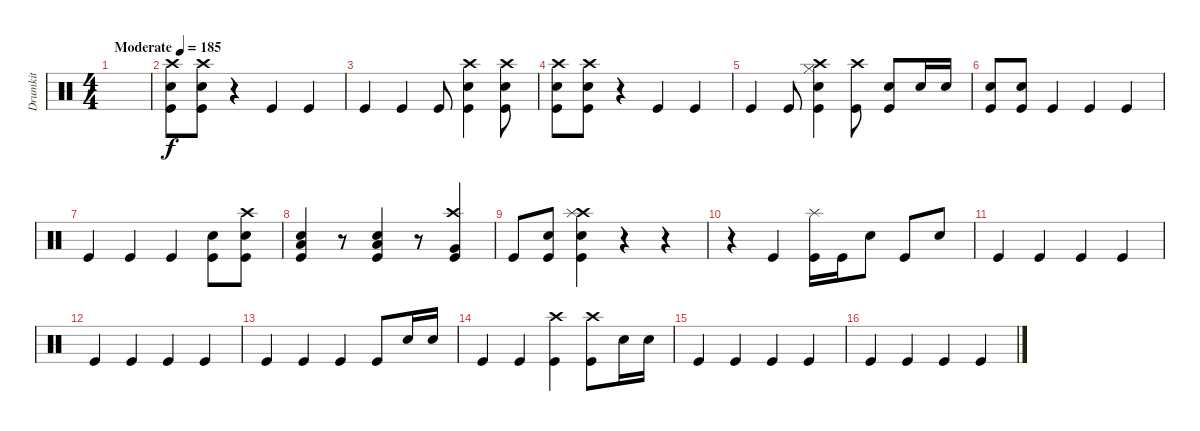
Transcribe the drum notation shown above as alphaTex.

\track ("Drumkit" "Drumkit") {instrument percussion}
\staff {score}
\articulation defaults
\ts (4 4)
\tempo (185 "Moderate")
\clef neutral
\ks c
|
("Kick (hit)" "Snare (hit) 2" "Crash high (hit)").8 ("Kick (hit)" "Snare (hit) 2" "Crash high (hit)").8 r.4 "Kick (hit)".4 "Kick (hit)".4 |
"Kick (hit)".4 "Kick (hit)".4 "Kick (hit)".8 ("Kick (hit)" "Snare (hit) 2" "Crash high (hit)").4 ("Kick (hit)" "Snare (hit) 2" "Crash high (hit)").8 |
("Kick (hit)" "Snare (hit) 2" "Crash high (hit)").8 ("Kick (hit)" "Snare (hit) 2" "Crash high (hit)").8 r.4 "Kick (hit)".4 "Kick (hit)".4 |
"Kick (hit)".4 "Kick (hit)".8 ("Kick (hit)" "Snare (hit) 2" "Hi-Hat (closed)" "Crash high (hit)").4 ("Kick (hit)" "Crash high (hit)").8 ("Kick (hit)" "Snare (hit) 2").8 "Snare (hit) 2".16 "Snare (hit) 2".16 |
("Kick (hit)" "Snare (hit) 2").8 ("Kick (hit)" "Snare (hit) 2").8 "Kick (hit)".4 "Kick (hit)".4 "Kick (hit)".4 |
"Kick (hit)".4 "Kick (hit)".4 "Kick (hit)".4 ("Kick (hit)" "Snare (hit) 2").8 ("Kick (hit)" "Snare (hit) 2" "Crash high (hit)").8 |
("Kick (hit)" "Low Floor Tom (hit)" "Snare (hit) 2").4 r.8 ("Kick (hit)" "Low Floor Tom (hit)" "Snare (hit) 2").4 r.8 ("Kick (hit)" "Very Low Tom (hit)" "Crash high (hit)").4 |
"Kick (hit)".8 ("Kick (hit)" "Snare (hit) 2").8 ("Kick (hit)" "Snare (hit) 2" "Crash high (hit)" "Splash (hit)").4 r.4 r.4 |
r.4 "Kick (hit)".4 ("Kick (hit)" "Splash (hit)").16 "Kick (hit)".16 "Snare (hit) 2".8 "Kick (hit)".8 "Snare (hit) 2".8 |
"Kick (hit)".4 "Kick (hit)".4 "Kick (hit)".4 "Kick (hit)".4 |
"Kick (hit)".4 "Kick (hit)".4 "Kick (hit)".4 "Kick (hit)".4 |
"Kick (hit)".4 "Kick (hit)".4 "Kick (hit)".4 "Kick (hit)".8 "Snare (hit) 2".16 "Snare (hit) 2".16 |
"Kick (hit)".4 "Kick (hit)".4 ("Kick (hit)" "Crash high (hit)").4 ("Kick (hit)" "Crash high (hit)").8 "Snare (hit) 2".16 "Snare (hit) 2".16 |
"Kick (hit)".4 "Kick (hit)".4 "Kick (hit)".4 "Kick (hit)".4 |
"Kick (hit)".4 "Kick (hit)".4 "Kick (hit)".4 "Kick (hit)".4
